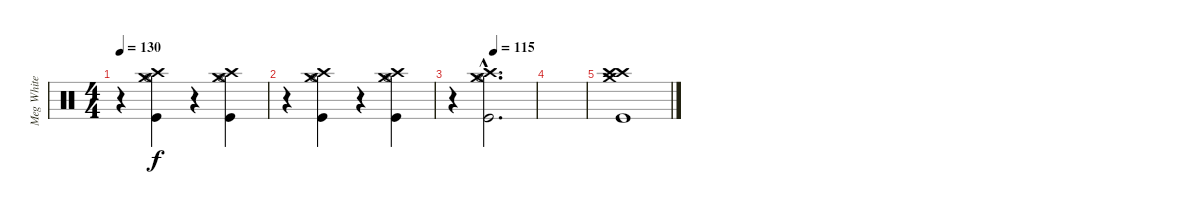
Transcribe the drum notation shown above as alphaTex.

\track ("Meg White" "Meg White") {instrument percussion}
\staff {score}
\articulation defaults
\ts (4 4)
\tempo 130
\clef neutral
\ks c
r.4{dy f} ("Hi-Hat (open)" "Crash medium (hit)" "Crash high (hit)" "Kick (hit)").4 r.4 ("Hi-Hat (open)" "Crash medium (hit)" "Crash high (hit)" "Kick (hit)").4 |
r.4 ("Hi-Hat (open)" "Crash medium (hit)" "Crash high (hit)" "Kick (hit)").4 r.4 ("Hi-Hat (open)" "Crash medium (hit)" "Crash high (hit)" "Kick (hit)").4 |
\tempo (115 0.5)
r.4 ("Hi-Hat (open)"{hac} "Crash medium (hit)"{hac} "Crash high (hit)"{hac} "Kick (hit)"{hac}).2{d} |
|
("Crash high (hit)" "Crash medium (hit)" "Crash high (hit)" "Kick (hit)").1
